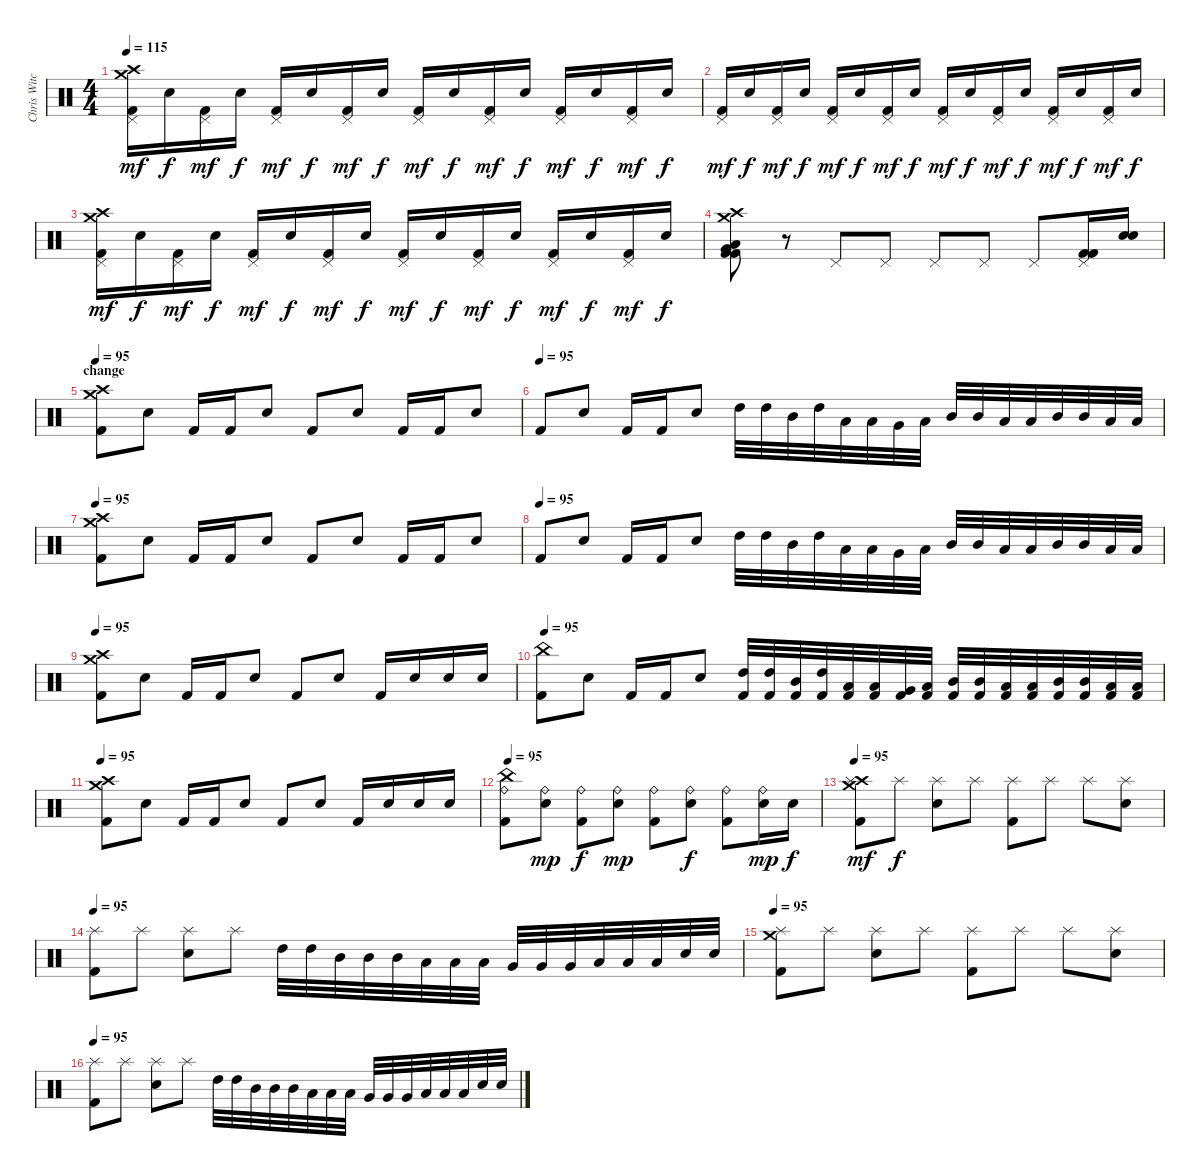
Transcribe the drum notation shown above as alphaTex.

\track ("Chris Witchhunter (Drums)" "Chris Witc") {instrument percussion}
\staff {score}
\articulation defaults
\ts (4 4)
\tempo 115
\clef neutral
\ks c
("Crash high (hit)" "Crash medium (hit)" "Pedal Hi-Hat (hit)" "Kick (hit) 2").16{dy mf} "Snare (hit) 2".16{dy f} ("Pedal Hi-Hat (hit)" "Kick (hit) 2").16{dy mf} "Snare (hit) 2".16{dy f} ("Pedal Hi-Hat (hit)" "Kick (hit) 2").16{dy mf} "Snare (hit) 2".16{dy f} ("Pedal Hi-Hat (hit)" "Kick (hit) 2").16{dy mf} "Snare (hit) 2".16{dy f} ("Pedal Hi-Hat (hit)" "Kick (hit) 2").16{dy mf} "Snare (hit) 2".16{dy f} ("Pedal Hi-Hat (hit)" "Kick (hit) 2").16{dy mf} "Snare (hit) 2".16{dy f} ("Pedal Hi-Hat (hit)" "Kick (hit) 2").16{dy mf} "Snare (hit) 2".16{dy f} ("Pedal Hi-Hat (hit)" "Kick (hit) 2").16{dy mf} "Snare (hit) 2".16{dy f} |
("Pedal Hi-Hat (hit)" "Kick (hit) 2").16{dy mf} "Snare (hit) 2".16{dy f} ("Pedal Hi-Hat (hit)" "Kick (hit) 2").16{dy mf} "Snare (hit) 2".16{dy f} ("Pedal Hi-Hat (hit)" "Kick (hit) 2").16{dy mf} "Snare (hit) 2".16{dy f} ("Pedal Hi-Hat (hit)" "Kick (hit) 2").16{dy mf} "Snare (hit) 2".16{dy f} ("Pedal Hi-Hat (hit)" "Kick (hit) 2").16{dy mf} "Snare (hit) 2".16{dy f} ("Pedal Hi-Hat (hit)" "Kick (hit) 2").16{dy mf} "Snare (hit) 2".16{dy f} ("Pedal Hi-Hat (hit)" "Kick (hit) 2").16{dy mf} "Snare (hit) 2".16{dy f} ("Pedal Hi-Hat (hit)" "Kick (hit) 2").16{dy mf} "Snare (hit) 2".16{dy f} |
("Crash high (hit)" "Crash medium (hit)" "Pedal Hi-Hat (hit)" "Kick (hit) 2").16{dy mf} "Snare (hit) 2".16{dy f} ("Pedal Hi-Hat (hit)" "Kick (hit) 2").16{dy mf} "Snare (hit) 2".16{dy f} ("Pedal Hi-Hat (hit)" "Kick (hit) 2").16{dy mf} "Snare (hit) 2".16{dy f} ("Pedal Hi-Hat (hit)" "Kick (hit) 2").16{dy mf} "Snare (hit) 2".16{dy f} ("Pedal Hi-Hat (hit)" "Kick (hit) 2").16{dy mf} "Snare (hit) 2".16{dy f} ("Pedal Hi-Hat (hit)" "Kick (hit) 2").16{dy mf} "Snare (hit) 2".16{dy f} ("Pedal Hi-Hat (hit)" "Kick (hit) 2").16{dy mf} "Snare (hit) 2".16{dy f} ("Pedal Hi-Hat (hit)" "Kick (hit) 2").16{dy mf} "Snare (hit) 2".16{dy f} |
("Crash medium (hit)" "Crash high (hit)" "Very Low Tom (hit)" "Low Floor Tom (hit)" "Kick (hit) 2" "Kick (hit) 2").8 r.8 "Pedal Hi-Hat (hit)".8 "Pedal Hi-Hat (hit)".8 "Pedal Hi-Hat (hit)".8 "Pedal Hi-Hat (hit)".8 "Pedal Hi-Hat (hit)".8 ("Pedal Hi-Hat (hit)" "Kick (hit) 2" "Kick (hit) 2").16 ("Snare (hit) 2" "Snare (hit) 2").16 |
\section ("" "change")
\tempo 95
("Crash high (hit)" "Crash medium (hit)" "Kick (hit) 2").8{volume 13} "Snare (hit) 2".8 "Kick (hit) 2".16 "Kick (hit) 2".16 "Snare (hit) 2".8 "Kick (hit) 2".8 "Snare (hit) 2".8 "Kick (hit) 2".16 "Kick (hit) 2".16 "Snare (hit) 2".8 |
\tempo (95)
"Kick (hit) 2".8{volume 13} "Snare (hit) 2".8 "Kick (hit) 2".16 "Kick (hit) 2".16 "Snare (hit) 2".8 "High Tom (hit)".32 "High Tom (hit)".32 "Mid Tom (hit)".32 "High Tom (hit)".32 "Low Tom (hit)".32 "Low Tom (hit)".32 "Very Low Tom (hit)".32 "Low Floor Tom (hit)".32 "Mid Tom (hit)".32 "Mid Tom (hit)".32 "Low Tom (hit)".32 "Low Tom (hit)".32 "Mid Tom (hit)".32 "Mid Tom (hit)".32 "Low Tom (hit)".32 "Low Tom (hit)".32 |
\tempo 95
("Crash high (hit)" "Crash medium (hit)" "Kick (hit) 2").8{volume 13} "Snare (hit) 2".8 "Kick (hit) 2".16 "Kick (hit) 2".16 "Snare (hit) 2".8 "Kick (hit) 2".8 "Snare (hit) 2".8 "Kick (hit) 2".16 "Kick (hit) 2".16 "Snare (hit) 2".8 |
\tempo (95)
"Kick (hit) 2".8{volume 13} "Snare (hit) 2".8 "Kick (hit) 2".16 "Kick (hit) 2".16 "Snare (hit) 2".8 "High Tom (hit)".32 "High Tom (hit)".32 "Mid Tom (hit)".32 "High Tom (hit)".32 "Low Tom (hit)".32 "Low Tom (hit)".32 "Very Low Tom (hit)".32 "Low Floor Tom (hit)".32 "Mid Tom (hit)".32 "Mid Tom (hit)".32 "Low Tom (hit)".32 "Low Tom (hit)".32 "Mid Tom (hit)".32 "Mid Tom (hit)".32 "Low Tom (hit)".32 "Low Tom (hit)".32 |
\tempo 95
("Crash high (hit)" "Crash medium (hit)" "Kick (hit) 2").8{volume 13} "Snare (hit) 2".8 "Kick (hit) 2".16 "Kick (hit) 2".16 "Snare (hit) 2".8 "Kick (hit) 2".8 "Snare (hit) 2".8 "Kick (hit) 2".16 "Snare (hit) 2".16 "Snare (hit) 2".16 "Snare (hit) 2".16 |
\tempo 95
("China (hit)" "Kick (hit) 2").8{volume 13} "Snare (hit) 2".8 "Kick (hit) 2".16 "Kick (hit) 2".16 "Snare (hit) 2".8 ("Kick (hit) 2" "High Tom (hit)").32 ("Kick (hit) 2" "High Tom (hit)").32 ("Kick (hit) 2" "Mid Tom (hit)").32 ("Kick (hit) 2" "High Tom (hit)").32 ("Kick (hit) 2" "Low Tom (hit)").32 ("Kick (hit) 2" "Low Tom (hit)").32 ("Kick (hit) 2" "Very Low Tom (hit)").32 ("Kick (hit) 2" "Low Floor Tom (hit)").32 ("Kick (hit) 2" "Mid Tom (hit)").32 ("Kick (hit) 2" "Mid Tom (hit)").32 ("Kick (hit) 2" "Low Tom (hit)").32 ("Kick (hit) 2" "Low Tom (hit)").32 ("Kick (hit) 2" "Mid Tom (hit)").32 ("Kick (hit) 2" "Mid Tom (hit)").32 ("Kick (hit) 2" "Low Tom (hit)").32 ("Kick (hit) 2" "Low Tom (hit)").32 |
\tempo 95
("Crash high (hit)" "Crash medium (hit)" "Kick (hit) 2").8{volume 13} "Snare (hit) 2".8 "Kick (hit) 2".16 "Kick (hit) 2".16 "Snare (hit) 2".8 "Kick (hit) 2".8 "Snare (hit) 2".8 "Kick (hit) 2".16 "Snare (hit) 2".16 "Snare (hit) 2".16 "Snare (hit) 2".16 |
\tempo 95
("China (hit)" "Ride (bell)" "Kick (hit) 2").8{volume 13} ("Ride (bell)" "Snare (hit) 2").8{dy mp} ("Ride (bell)" "Kick (hit) 2").8{dy f} ("Ride (bell)" "Snare (hit) 2").8{dy mp} ("Ride (bell)" "Kick (hit) 2").8 ("Ride (bell)" "Snare (hit) 2").8{dy f} ("Ride (bell)" "Kick (hit) 2").8 ("Ride (bell)" "Snare (hit) 2").16{dy mp} "Snare (hit) 2".16{dy f} |
\tempo 95
("Crash medium (hit)" "Crash high (hit)" "Splash (hit)" "Kick (hit) 2").8{dy mf} "Splash (hit)".8{dy f} ("Splash (hit)" "Snare (hit) 2").8 "Splash (hit)".8 ("Splash (hit)" "Kick (hit) 2").8 "Splash (hit)".8 "Splash (hit)".8 ("Splash (hit)" "Snare (hit) 2").8 |
\tempo 95
("Splash (hit)" "Kick (hit) 2").8 "Splash (hit)".8 ("Splash (hit)" "Snare (hit) 2").8 "Splash (hit)".8 "High Tom (hit)".32 "High Tom (hit)".32 "Mid Tom (hit)".32 "Mid Tom (hit)".32 "Mid Tom (hit)".32 "Low Tom (hit)".32 "Low Tom (hit)".32 "Low Tom (hit)".32 "Very Low Tom (hit)".32 "Very Low Tom (hit)".32 "Very Low Tom (hit)".32 "Low Floor Tom (hit)".32 "Low Floor Tom (hit)".32 "Low Floor Tom (hit)".32 "Snare (hit) 2".32 "Snare (hit) 2".32 |
\tempo 95
("Crash medium (hit)" "Splash (hit)" "Kick (hit) 2").8 "Splash (hit)".8 ("Splash (hit)" "Snare (hit) 2").8 "Splash (hit)".8 ("Splash (hit)" "Kick (hit) 2").8 "Splash (hit)".8 "Splash (hit)".8 ("Splash (hit)" "Snare (hit) 2").8 |
\tempo 95
("Splash (hit)" "Kick (hit) 2").8 "Splash (hit)".8 ("Splash (hit)" "Snare (hit) 2").8 "Splash (hit)".8 "High Tom (hit)".32 "High Tom (hit)".32 "Mid Tom (hit)".32 "Mid Tom (hit)".32 "Mid Tom (hit)".32 "Low Tom (hit)".32 "Low Tom (hit)".32 "Low Tom (hit)".32 "Very Low Tom (hit)".32 "Very Low Tom (hit)".32 "Very Low Tom (hit)".32 "Low Floor Tom (hit)".32 "Low Floor Tom (hit)".32 "Low Floor Tom (hit)".32 "Snare (hit) 2".32 "Snare (hit) 2".32
